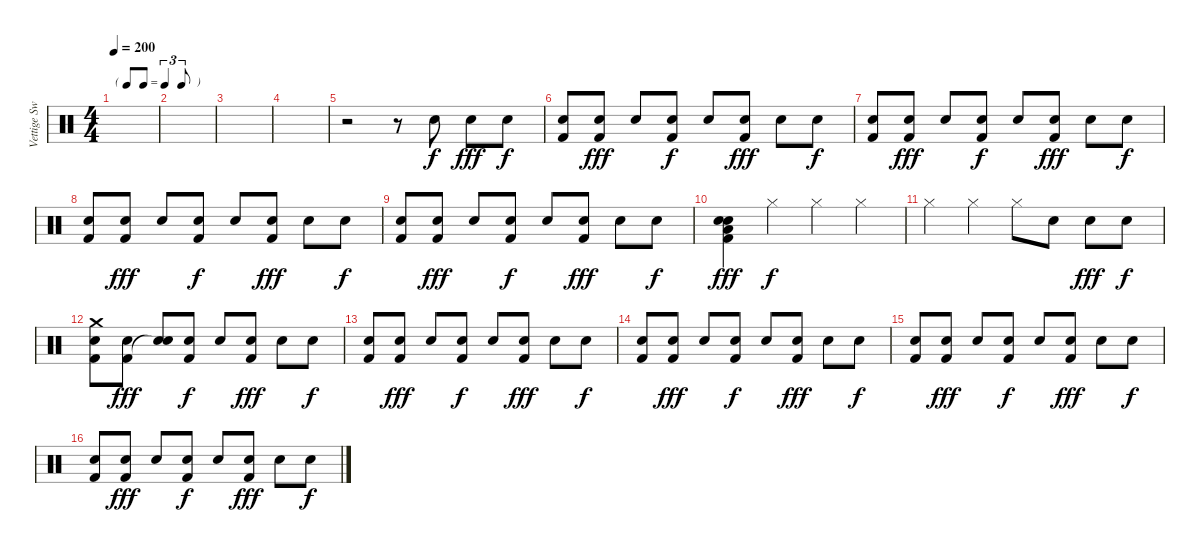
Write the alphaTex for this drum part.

\track ("Vettige Swa" "Vettige Sw") {instrument percussion}
\staff {score}
\articulation defaults
\ts (4 4)
\tf triplet8th
\tempo 200
\clef neutral
\ks c
|
|
|
|
r.2 r.8 "Electric Snare (hit)".8 "Electric Snare (hit)".8{dy fff} "Electric Snare (hit)".8{dy f} |
("Electric Snare (hit)" "Kick (hit) 2").8 ("Electric Snare (hit)" "Kick (hit) 2").8{dy fff} "Electric Snare (hit)".8 ("Electric Snare (hit)" "Kick (hit) 2").8{dy f} "Electric Snare (hit)".8 ("Electric Snare (hit)" "Kick (hit) 2").8{dy fff} "Electric Snare (hit)".8 "Electric Snare (hit)".8{dy f} |
("Electric Snare (hit)" "Kick (hit) 2").8 ("Electric Snare (hit)" "Kick (hit) 2").8{dy fff} "Electric Snare (hit)".8 ("Electric Snare (hit)" "Kick (hit) 2").8{dy f} "Electric Snare (hit)".8 ("Electric Snare (hit)" "Kick (hit) 2").8{dy fff} "Electric Snare (hit)".8 "Electric Snare (hit)".8{dy f} |
("Electric Snare (hit)" "Kick (hit) 2").8 ("Electric Snare (hit)" "Kick (hit) 2").8{dy fff} "Electric Snare (hit)".8 ("Electric Snare (hit)" "Kick (hit) 2").8{dy f} "Electric Snare (hit)".8 ("Electric Snare (hit)" "Kick (hit) 2").8{dy fff} "Electric Snare (hit)".8 "Electric Snare (hit)".8{dy f} |
("Electric Snare (hit)" "Kick (hit) 2").8 ("Electric Snare (hit)" "Kick (hit) 2").8{dy fff} "Electric Snare (hit)".8 ("Electric Snare (hit)" "Kick (hit) 2").8{dy f} "Electric Snare (hit)".8 ("Electric Snare (hit)" "Kick (hit) 2").8{dy fff} "Electric Snare (hit)".8 "Electric Snare (hit)".8{dy f} |
("Electric Snare (hit)" "Electric Snare (hit)" "Kick (hit) 2" "Low Floor Tom (hit)").4{dy fff} "Hi-Hat (closed)".4{dy f} "Hi-Hat (closed)".4 "Hi-Hat (closed)".4 |
"Hi-Hat (closed)".4 "Hi-Hat (closed)".4 "Hi-Hat (closed)".8 "Electric Snare (hit)".8 "Electric Snare (hit)".8{dy fff} "Electric Snare (hit)".8{dy f} |
("Electric Snare (hit)" "Kick (hit) 2" "Crash medium (hit)").8 ("Electric Snare (hit)" "Kick (hit) 2").8{dy fff} ("Electric Snare (hit)" "Snare (hit)"{t}).8 ("Electric Snare (hit)" "Kick (hit) 2").8{dy f} "Electric Snare (hit)".8 ("Electric Snare (hit)" "Kick (hit) 2").8{dy fff} "Electric Snare (hit)".8 "Electric Snare (hit)".8{dy f} |
("Electric Snare (hit)" "Kick (hit) 2").8 ("Electric Snare (hit)" "Kick (hit) 2").8{dy fff} "Electric Snare (hit)".8 ("Electric Snare (hit)" "Kick (hit) 2").8{dy f} "Electric Snare (hit)".8 ("Electric Snare (hit)" "Kick (hit) 2").8{dy fff} "Electric Snare (hit)".8 "Electric Snare (hit)".8{dy f} |
("Electric Snare (hit)" "Kick (hit) 2").8 ("Electric Snare (hit)" "Kick (hit) 2").8{dy fff} "Electric Snare (hit)".8 ("Electric Snare (hit)" "Kick (hit) 2").8{dy f} "Electric Snare (hit)".8 ("Electric Snare (hit)" "Kick (hit) 2").8{dy fff} "Electric Snare (hit)".8 "Electric Snare (hit)".8{dy f} |
("Electric Snare (hit)" "Kick (hit) 2").8 ("Electric Snare (hit)" "Kick (hit) 2").8{dy fff} "Electric Snare (hit)".8 ("Electric Snare (hit)" "Kick (hit) 2").8{dy f} "Electric Snare (hit)".8 ("Electric Snare (hit)" "Kick (hit) 2").8{dy fff} "Electric Snare (hit)".8 "Electric Snare (hit)".8{dy f} |
("Electric Snare (hit)" "Kick (hit) 2").8 ("Electric Snare (hit)" "Kick (hit) 2").8{dy fff} "Electric Snare (hit)".8 ("Electric Snare (hit)" "Kick (hit) 2").8{dy f} "Electric Snare (hit)".8 ("Electric Snare (hit)" "Kick (hit) 2").8{dy fff} "Electric Snare (hit)".8 "Electric Snare (hit)".8{dy f}
